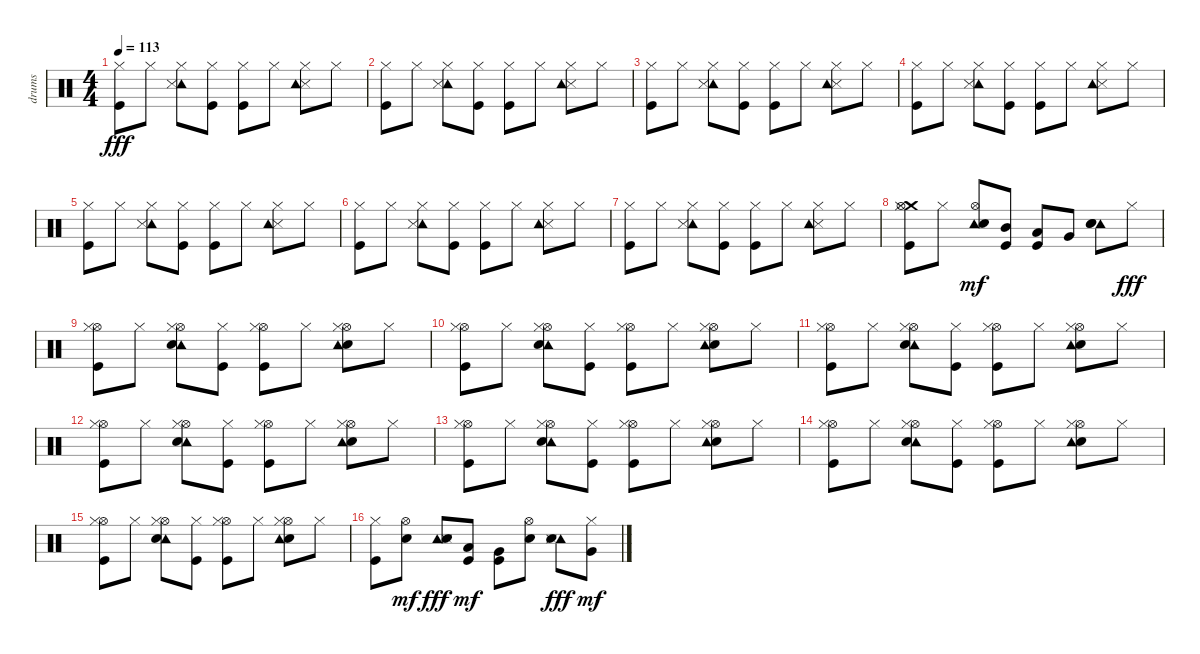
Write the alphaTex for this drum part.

\track ("drums" "drums") {instrument percussion}
\staff {score}
\articulation defaults
\ts (4 4)
\tempo 113
\clef neutral
\ks c
("Kick (hit)" "Hi-Hat (closed)").8{dy fff} "Hi-Hat (closed)".8 ("Tambourine (hit)" "Snare (side stick) 3" "Hi-Hat (closed)").8 ("Kick (hit)" "Hi-Hat (closed)").8 ("Kick (hit)" "Hi-Hat (closed)").8 "Hi-Hat (closed)".8 ("Snare (side stick) 3" "Hi-Hat (closed)" "Tambourine (hit)").8 "Hi-Hat (closed)".8 |
("Kick (hit)" "Hi-Hat (closed)").8 "Hi-Hat (closed)".8 ("Tambourine (hit)" "Hi-Hat (closed)" "Snare (side stick) 3").8 ("Kick (hit)" "Hi-Hat (closed)").8 ("Kick (hit)" "Hi-Hat (closed)").8 "Hi-Hat (closed)".8 ("Snare (side stick) 3" "Hi-Hat (closed)" "Tambourine (hit)").8 "Hi-Hat (closed)".8 |
("Kick (hit)" "Hi-Hat (closed)").8 "Hi-Hat (closed)".8 ("Tambourine (hit)" "Snare (side stick) 3" "Hi-Hat (closed)").8 ("Kick (hit)" "Hi-Hat (closed)").8 ("Kick (hit)" "Hi-Hat (closed)").8 "Hi-Hat (closed)".8 ("Hi-Hat (closed)" "Snare (side stick) 3" "Tambourine (hit)").8 "Hi-Hat (closed)".8 |
("Kick (hit)" "Hi-Hat (closed)").8 "Hi-Hat (closed)".8 ("Tambourine (hit)" "Hi-Hat (closed)" "Snare (side stick) 3").8 ("Kick (hit)" "Hi-Hat (closed)").8 ("Kick (hit)" "Hi-Hat (closed)").8 "Hi-Hat (closed)".8 ("Hi-Hat (closed)" "Snare (side stick) 3" "Tambourine (hit)").8 "Hi-Hat (closed)".8 |
("Kick (hit)" "Hi-Hat (closed)").8 "Hi-Hat (closed)".8 ("Tambourine (hit)" "Snare (side stick) 3" "Hi-Hat (closed)").8 ("Kick (hit)" "Hi-Hat (closed)").8 ("Kick (hit)" "Hi-Hat (closed)").8 "Hi-Hat (closed)".8 ("Snare (side stick) 3" "Hi-Hat (closed)" "Tambourine (hit)").8 "Hi-Hat (closed)".8 |
("Kick (hit)" "Hi-Hat (closed)").8 "Hi-Hat (closed)".8 ("Tambourine (hit)" "Hi-Hat (closed)" "Snare (side stick) 3").8 ("Kick (hit)" "Hi-Hat (closed)").8 ("Kick (hit)" "Hi-Hat (closed)").8 "Hi-Hat (closed)".8 ("Snare (side stick) 3" "Hi-Hat (closed)" "Tambourine (hit)").8 "Hi-Hat (closed)".8 |
("Kick (hit)" "Hi-Hat (closed)").8 "Hi-Hat (closed)".8 ("Tambourine (hit)" "Snare (side stick) 3" "Hi-Hat (closed)").8 ("Kick (hit)" "Hi-Hat (closed)").8 ("Kick (hit)" "Hi-Hat (closed)").8 "Hi-Hat (closed)".8 ("Hi-Hat (closed)" "Snare (side stick) 3" "Tambourine (hit)").8 "Hi-Hat (closed)".8 |
("Kick (hit)" "Crash medium (hit)" "Hi-Hat (open)" "Hi-Hat (closed)").8 "Hi-Hat (closed)".8 ("Tambourine (hit)" "Electric Snare (hit)" "Hi-Hat (open)").8{dy mf} ("Kick (hit)" "Mid Tom (hit)").8 ("Kick (hit)" "Low Tom (hit)").8 "Very Low Tom (hit)".8 ("Tambourine (hit)" "Electric Snare (hit)" "Electric Snare (hit)").8 "Hi-Hat (closed)".8{dy fff} |
("Kick (hit)" "Hi-Hat (open)" "Hi-Hat (closed)").8 "Hi-Hat (closed)".8 ("Tambourine (hit)" "Electric Snare (hit)" "Hi-Hat (open)" "Hi-Hat (closed)").8 ("Kick (hit)" "Hi-Hat (closed)").8 ("Kick (hit)" "Hi-Hat (open)" "Hi-Hat (closed)").8 "Hi-Hat (closed)".8 ("Electric Snare (hit)" "Hi-Hat (open)" "Tambourine (hit)" "Hi-Hat (closed)").8 "Hi-Hat (closed)".8 |
("Kick (hit)" "Hi-Hat (open)" "Hi-Hat (closed)").8 "Hi-Hat (closed)".8 ("Tambourine (hit)" "Electric Snare (hit)" "Hi-Hat (open)" "Hi-Hat (closed)").8 ("Kick (hit)" "Hi-Hat (closed)").8 ("Kick (hit)" "Hi-Hat (open)" "Hi-Hat (closed)").8 "Hi-Hat (closed)".8 ("Electric Snare (hit)" "Hi-Hat (open)" "Tambourine (hit)" "Hi-Hat (closed)").8 "Hi-Hat (closed)".8 |
("Kick (hit)" "Hi-Hat (open)" "Hi-Hat (closed)").8 "Hi-Hat (closed)".8 ("Tambourine (hit)" "Electric Snare (hit)" "Hi-Hat (open)" "Hi-Hat (closed)").8 ("Kick (hit)" "Hi-Hat (closed)").8 ("Kick (hit)" "Hi-Hat (open)" "Hi-Hat (closed)").8 "Hi-Hat (closed)".8 ("Electric Snare (hit)" "Hi-Hat (open)" "Tambourine (hit)" "Hi-Hat (closed)").8 "Hi-Hat (closed)".8 |
("Kick (hit)" "Hi-Hat (open)" "Hi-Hat (closed)").8 "Hi-Hat (closed)".8 ("Tambourine (hit)" "Electric Snare (hit)" "Hi-Hat (open)" "Hi-Hat (closed)").8 ("Kick (hit)" "Hi-Hat (closed)").8 ("Kick (hit)" "Hi-Hat (open)" "Hi-Hat (closed)").8 "Hi-Hat (closed)".8 ("Electric Snare (hit)" "Hi-Hat (open)" "Tambourine (hit)" "Hi-Hat (closed)").8 "Hi-Hat (closed)".8 |
("Kick (hit)" "Hi-Hat (open)" "Hi-Hat (closed)").8 "Hi-Hat (closed)".8 ("Tambourine (hit)" "Electric Snare (hit)" "Hi-Hat (open)" "Hi-Hat (closed)").8 ("Kick (hit)" "Hi-Hat (closed)").8 ("Kick (hit)" "Hi-Hat (open)" "Hi-Hat (closed)").8 "Hi-Hat (closed)".8 ("Electric Snare (hit)" "Hi-Hat (open)" "Tambourine (hit)" "Hi-Hat (closed)").8 "Hi-Hat (closed)".8 |
("Kick (hit)" "Hi-Hat (open)" "Hi-Hat (closed)").8 "Hi-Hat (closed)".8 ("Tambourine (hit)" "Electric Snare (hit)" "Hi-Hat (open)" "Hi-Hat (closed)").8 ("Kick (hit)" "Hi-Hat (closed)").8 ("Kick (hit)" "Hi-Hat (open)" "Hi-Hat (closed)").8 "Hi-Hat (closed)".8 ("Electric Snare (hit)" "Hi-Hat (open)" "Tambourine (hit)" "Hi-Hat (closed)").8 "Hi-Hat (closed)".8 |
("Kick (hit)" "Hi-Hat (open)" "Hi-Hat (closed)").8 "Hi-Hat (closed)".8 ("Tambourine (hit)" "Electric Snare (hit)" "Hi-Hat (open)" "Hi-Hat (closed)").8 ("Kick (hit)" "Hi-Hat (closed)").8 ("Kick (hit)" "Hi-Hat (open)" "Hi-Hat (closed)").8 "Hi-Hat (closed)".8 ("Electric Snare (hit)" "Hi-Hat (open)" "Tambourine (hit)" "Hi-Hat (closed)").8 "Hi-Hat (closed)".8 |
("Kick (hit)" "Hi-Hat (closed)").8 ("Electric Snare (hit)" "Hi-Hat (open)").8{dy mf} ("Tambourine (hit)" "Electric Snare (hit)" "Snare (side stick) 3").8{dy fff} ("Kick (hit)" "Low Tom (hit)").8{dy mf} ("Kick (hit)" "Very Low Tom (hit)").8 ("Electric Snare (hit)" "Hi-Hat (open)").8 ("Tambourine (hit)" "Electric Snare (hit)" "Snare (side stick) 3").8{dy fff} ("Hi-Hat (closed)" "Very Low Tom (hit)").8{dy mf}
